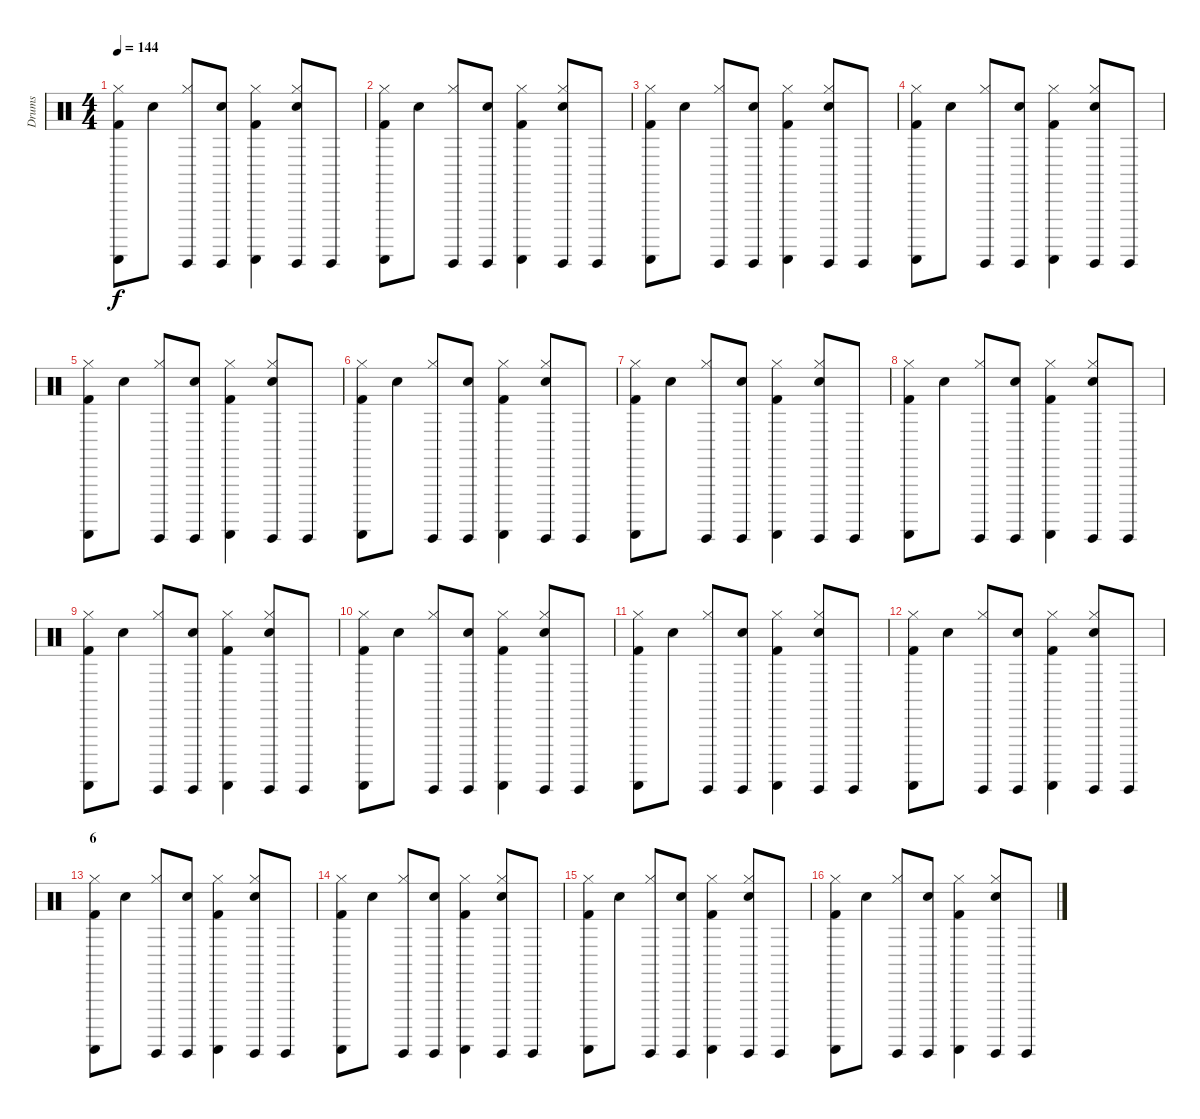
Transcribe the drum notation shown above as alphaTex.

\track ("Drums" "Drums") {instrument percussion}
\staff {score}
\articulation defaults
\ts (4 4)
\tempo 144
\clef neutral
\ks c
("Kick (hit) 2" "Guiro (scrap-return)" "Hi-Hat (closed)").8{dy f} "Electric Snare (hit)".8 ("Hi-Hat (closed)" "Guiro (hit)").8 ("Electric Snare (hit)" "Guiro (hit)").8 ("Hi-Hat (closed)" "Guiro (scrap-return)" "Kick (hit) 2").4 ("Guiro (hit)" "Electric Snare (hit)" "Hi-Hat (closed)").8 "Guiro (hit)".8 |
("Kick (hit) 2" "Guiro (scrap-return)" "Hi-Hat (closed)").8 "Electric Snare (hit)".8 ("Hi-Hat (closed)" "Guiro (hit)").8 ("Electric Snare (hit)" "Guiro (hit)").8 ("Hi-Hat (closed)" "Guiro (scrap-return)" "Kick (hit) 2").4 ("Guiro (hit)" "Electric Snare (hit)" "Hi-Hat (closed)").8 "Guiro (hit)".8 |
("Kick (hit) 2" "Guiro (scrap-return)" "Hi-Hat (closed)").8 "Electric Snare (hit)".8 ("Hi-Hat (closed)" "Guiro (hit)").8 ("Electric Snare (hit)" "Guiro (hit)").8 ("Hi-Hat (closed)" "Guiro (scrap-return)" "Kick (hit) 2").4 ("Guiro (hit)" "Electric Snare (hit)" "Hi-Hat (closed)").8 "Guiro (hit)".8 |
("Kick (hit) 2" "Guiro (scrap-return)" "Hi-Hat (closed)").8 "Electric Snare (hit)".8 ("Hi-Hat (closed)" "Guiro (hit)").8 ("Electric Snare (hit)" "Guiro (hit)").8 ("Hi-Hat (closed)" "Guiro (scrap-return)" "Kick (hit) 2").4 ("Guiro (hit)" "Electric Snare (hit)" "Hi-Hat (closed)").8 "Guiro (hit)".8 |
("Kick (hit) 2" "Guiro (scrap-return)" "Hi-Hat (closed)").8 "Electric Snare (hit)".8 ("Hi-Hat (closed)" "Guiro (hit)").8 ("Electric Snare (hit)" "Guiro (hit)").8 ("Hi-Hat (closed)" "Guiro (scrap-return)" "Kick (hit) 2").4 ("Guiro (hit)" "Electric Snare (hit)" "Hi-Hat (closed)").8 "Guiro (hit)".8 |
("Kick (hit) 2" "Guiro (scrap-return)" "Hi-Hat (closed)").8 "Electric Snare (hit)".8 ("Hi-Hat (closed)" "Guiro (hit)").8 ("Electric Snare (hit)" "Guiro (hit)").8 ("Hi-Hat (closed)" "Guiro (scrap-return)" "Kick (hit) 2").4 ("Guiro (hit)" "Electric Snare (hit)" "Hi-Hat (closed)").8 "Guiro (hit)".8 |
("Kick (hit) 2" "Guiro (scrap-return)" "Hi-Hat (closed)").8 "Electric Snare (hit)".8 ("Hi-Hat (closed)" "Guiro (hit)").8 ("Electric Snare (hit)" "Guiro (hit)").8 ("Hi-Hat (closed)" "Guiro (scrap-return)" "Kick (hit) 2").4 ("Guiro (hit)" "Electric Snare (hit)" "Hi-Hat (closed)").8 "Guiro (hit)".8 |
("Kick (hit) 2" "Guiro (scrap-return)" "Hi-Hat (closed)").8 "Electric Snare (hit)".8 ("Hi-Hat (closed)" "Guiro (hit)").8 ("Electric Snare (hit)" "Guiro (hit)").8 ("Hi-Hat (closed)" "Guiro (scrap-return)" "Kick (hit) 2").4 ("Guiro (hit)" "Electric Snare (hit)" "Hi-Hat (closed)").8 "Guiro (hit)".8 |
("Kick (hit) 2" "Guiro (scrap-return)" "Hi-Hat (closed)").8 "Electric Snare (hit)".8 ("Hi-Hat (closed)" "Guiro (hit)").8 ("Electric Snare (hit)" "Guiro (hit)").8 ("Hi-Hat (closed)" "Guiro (scrap-return)" "Kick (hit) 2").4 ("Guiro (hit)" "Electric Snare (hit)" "Hi-Hat (closed)").8 "Guiro (hit)".8 |
("Kick (hit) 2" "Guiro (scrap-return)" "Hi-Hat (closed)").8 "Electric Snare (hit)".8 ("Hi-Hat (closed)" "Guiro (hit)").8 ("Electric Snare (hit)" "Guiro (hit)").8 ("Hi-Hat (closed)" "Guiro (scrap-return)" "Kick (hit) 2").4 ("Guiro (hit)" "Electric Snare (hit)" "Hi-Hat (closed)").8 "Guiro (hit)".8 |
("Kick (hit) 2" "Guiro (scrap-return)" "Hi-Hat (closed)").8 "Electric Snare (hit)".8 ("Hi-Hat (closed)" "Guiro (hit)").8 ("Electric Snare (hit)" "Guiro (hit)").8 ("Hi-Hat (closed)" "Guiro (scrap-return)" "Kick (hit) 2").4 ("Guiro (hit)" "Electric Snare (hit)" "Hi-Hat (closed)").8 "Guiro (hit)".8 |
("Kick (hit) 2" "Guiro (scrap-return)" "Hi-Hat (closed)").8 "Electric Snare (hit)".8 ("Hi-Hat (closed)" "Guiro (hit)").8 ("Electric Snare (hit)" "Guiro (hit)").8 ("Hi-Hat (closed)" "Guiro (scrap-return)" "Kick (hit) 2").4 ("Guiro (hit)" "Electric Snare (hit)" "Hi-Hat (closed)").8 "Guiro (hit)".8 |
\section ("" "6")
("Kick (hit) 2" "Guiro (scrap-return)" "Hi-Hat (closed)").8 "Electric Snare (hit)".8 ("Hi-Hat (closed)" "Guiro (hit)").8 ("Electric Snare (hit)" "Guiro (hit)").8 ("Hi-Hat (closed)" "Guiro (scrap-return)" "Kick (hit) 2").4 ("Guiro (hit)" "Electric Snare (hit)" "Hi-Hat (closed)").8 "Guiro (hit)".8 |
("Kick (hit) 2" "Guiro (scrap-return)" "Hi-Hat (closed)").8 "Electric Snare (hit)".8 ("Hi-Hat (closed)" "Guiro (hit)").8 ("Electric Snare (hit)" "Guiro (hit)").8 ("Hi-Hat (closed)" "Guiro (scrap-return)" "Kick (hit) 2").4 ("Guiro (hit)" "Electric Snare (hit)" "Hi-Hat (closed)").8 "Guiro (hit)".8 |
("Kick (hit) 2" "Guiro (scrap-return)" "Hi-Hat (closed)").8 "Electric Snare (hit)".8 ("Hi-Hat (closed)" "Guiro (hit)").8 ("Electric Snare (hit)" "Guiro (hit)").8 ("Hi-Hat (closed)" "Guiro (scrap-return)" "Kick (hit) 2").4 ("Guiro (hit)" "Electric Snare (hit)" "Hi-Hat (closed)").8 "Guiro (hit)".8 |
("Kick (hit) 2" "Guiro (scrap-return)" "Hi-Hat (closed)").8 "Electric Snare (hit)".8 ("Hi-Hat (closed)" "Guiro (hit)").8 ("Electric Snare (hit)" "Guiro (hit)").8 ("Hi-Hat (closed)" "Guiro (scrap-return)" "Kick (hit) 2").4 ("Guiro (hit)" "Electric Snare (hit)" "Hi-Hat (closed)").8 "Guiro (hit)".8
